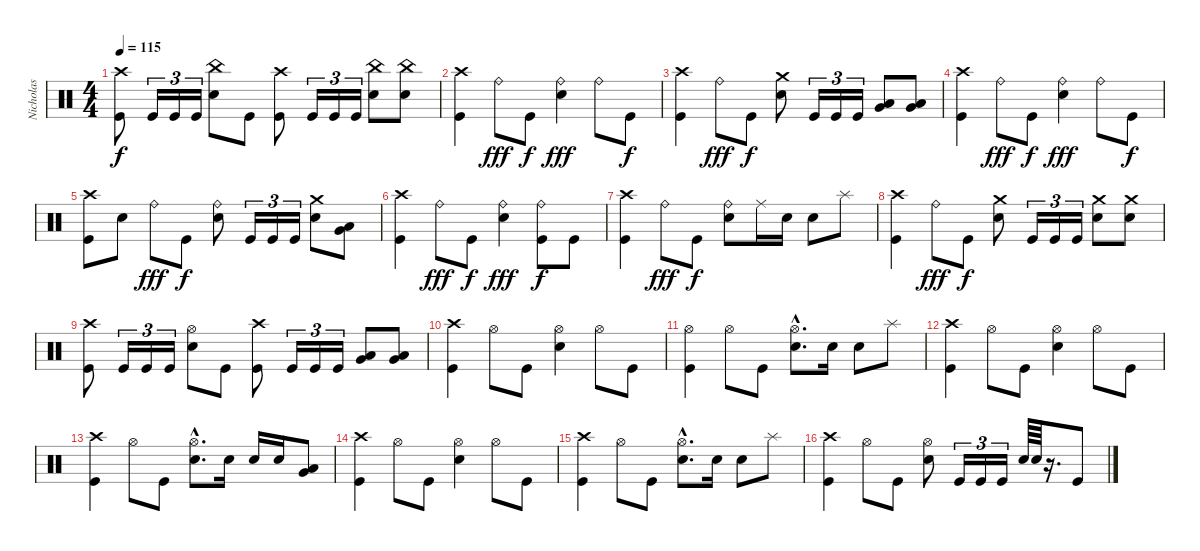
\track ("Nicholas" "Nicholas") {instrument percussion}
\staff {score}
\articulation defaults
\ts (4 4)
\tempo 115
\clef neutral
\ks c
("Crash high (hit)" "Kick (hit)").8{dy f} "Kick (hit)".16{tu (3 2)} "Kick (hit)".16{tu (3 2)} "Kick (hit)".16{tu (3 2)} ("China (hit)" "Electric Snare (hit)").8 "Kick (hit)".8 ("Crash high (hit)" "Kick (hit)").8 "Kick (hit)".16{tu (3 2)} "Kick (hit)".16{tu (3 2)} "Kick (hit)".16{tu (3 2)} ("China (hit)" "Electric Snare (hit)").8 ("China (hit)" "Electric Snare (hit)").8 |
("Crash high (hit)" "Kick (hit)").4 "Ride (bell)".8{dy fff} "Kick (hit)".8{dy f} ("Ride (bell)" "Electric Snare (hit)").4{dy fff} "Ride (bell)".8 "Kick (hit)".8{dy f} |
("Crash high (hit)" "Kick (hit)").4 "Ride (bell)".8{dy fff} "Kick (hit)".8{dy f} ("Crash medium (hit)" "Electric Snare (hit)").8 "Kick (hit)".16{tu (3 2)} "Kick (hit)".16{tu (3 2)} "Kick (hit)".16{tu (3 2)} ("Low Tom (hit)" "Very Low Tom (hit)").8{bd 60} ("Low Tom (hit)" "Very Low Tom (hit)").8{bd 60} |
("Crash high (hit)" "Kick (hit)").4 "Ride (bell)".8{dy fff} "Kick (hit)".8{dy f} ("Ride (bell)" "Electric Snare (hit)").4{dy fff} "Ride (bell)".8 "Kick (hit)".8{dy f} |
("Crash high (hit)" "Kick (hit)").8 "Electric Snare (hit)".8 "Ride (bell)".8{dy fff} "Kick (hit)".8{dy f} ("Ride (bell)" "Electric Snare (hit)").8 "Kick (hit)".16{tu (3 2)} "Kick (hit)".16{tu (3 2)} "Kick (hit)".16{tu (3 2)} ("Crash medium (hit)" "Electric Snare (hit)").8 ("Low Tom (hit)" "Very Low Tom (hit)").8{bu 60} |
("Crash high (hit)" "Kick (hit)").4 "Ride (bell)".8{dy fff} "Kick (hit)".8{dy f} ("Ride (bell)" "Electric Snare (hit)").4{dy fff} ("Ride (bell)" "Kick (hit)").8{dy f} "Kick (hit)".8 |
("Crash high (hit)" "Kick (hit)").4 "Ride (bell)".8{dy fff} "Kick (hit)".8{dy f} ("Ride (bell)" "Electric Snare (hit)").8 "Ride (middle)".16 "Electric Snare (hit)".16 "Electric Snare (hit)".8 "Splash (hit)".8 |
("Crash high (hit)" "Kick (hit)").4 "Ride (bell)".8{dy fff} "Kick (hit)".8{dy f} ("Crash medium (hit)" "Electric Snare (hit)").8 "Kick (hit)".16{tu (3 2)} "Kick (hit)".16{tu (3 2)} "Kick (hit)".16{tu (3 2)} ("Crash medium (hit)" "Electric Snare (hit)").8 ("Crash medium (hit)" "Electric Snare (hit)").8 |
("Crash high (hit)" "Kick (hit)").8 "Kick (hit)".16{tu (3 2)} "Kick (hit)".16{tu (3 2)} "Kick (hit)".16{tu (3 2)} ("Hi-Hat (open)" "Electric Snare (hit)").8 "Kick (hit)".8 ("Crash high (hit)" "Kick (hit)").8 "Kick (hit)".16{tu (3 2)} "Kick (hit)".16{tu (3 2)} "Kick (hit)".16{tu (3 2)} ("Low Tom (hit)" "Very Low Tom (hit)").8{bd 60} ("Low Tom (hit)" "Very Low Tom (hit)").8{bd 60} |
("Crash high (hit)" "Kick (hit)").4 "Hi-Hat (open)".8 "Kick (hit)".8 ("Hi-Hat (open)" "Electric Snare (hit)").4 "Hi-Hat (open)".8 "Kick (hit)".8 |
("Hi-Hat (open)" "Kick (hit)").4 "Hi-Hat (open)".8 "Kick (hit)".8 ("Hi-Hat (open)"{hac} "Electric Snare (hit)"{hac}).8{d} "Electric Snare (hit)".16 "Electric Snare (hit)".8 "Splash (hit)".8 |
("Crash high (hit)" "Kick (hit)").4 "Hi-Hat (open)".8 "Kick (hit)".8 ("Hi-Hat (open)" "Electric Snare (hit)").4 "Hi-Hat (open)".8 "Kick (hit)".8 |
("Crash high (hit)" "Kick (hit)").4 "Hi-Hat (open)".8 "Kick (hit)".8 ("Hi-Hat (open)"{hac} "Electric Snare (hit)"{hac}).8{d} "Electric Snare (hit)".16 "Electric Snare (hit)".16 "Electric Snare (hit)".16 ("Low Tom (hit)" "Very Low Tom (hit)").8{bd 60} |
("Crash high (hit)" "Kick (hit)").4 "Hi-Hat (open)".8 "Kick (hit)".8 ("Hi-Hat (open)" "Electric Snare (hit)").4 "Hi-Hat (open)".8 "Kick (hit)".8 |
("Crash high (hit)" "Kick (hit)").4 "Hi-Hat (open)".8 "Kick (hit)".8 ("Hi-Hat (open)"{hac} "Electric Snare (hit)"{hac}).8{d} "Electric Snare (hit)".16 "Electric Snare (hit)".8 "Splash (hit)".8 |
("Crash high (hit)" "Kick (hit)").4 "Hi-Hat (open)".8 "Kick (hit)".8 ("Hi-Hat (open)" "Electric Snare (hit)").8 "Kick (hit)".16{tu (3 2)} "Kick (hit)".16{tu (3 2)} "Kick (hit)".16{tu (3 2)} "Electric Snare (hit)".64 "Electric Snare (hit)".64 r.16{d} "Kick (hit)".8
